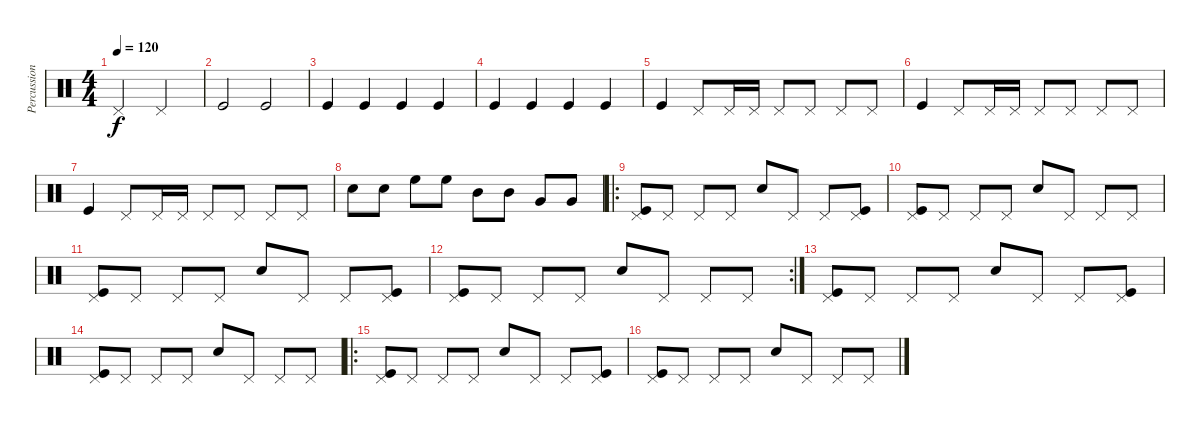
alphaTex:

\track ("Percussion" "Percussion") {instrument percussion}
\staff {score}
\articulation defaults
\ts (4 4)
\tempo 120
\clef neutral
\ks c "Pedal Hi-Hat (hit)".2{dy f} "Pedal Hi-Hat (hit)".2
|
"Kick (hit)".2 "Kick (hit)".2 |
"Kick (hit)".4 "Kick (hit)".4 "Kick (hit)".4 "Kick (hit)".4 |
"Kick (hit)".4 "Kick (hit)".4 "Kick (hit)".4 "Kick (hit)".4 |
"Kick (hit)".4 "Pedal Hi-Hat (hit)".8 "Pedal Hi-Hat (hit)".16 "Pedal Hi-Hat (hit)".16 "Pedal Hi-Hat (hit)".8 "Pedal Hi-Hat (hit)".8 "Pedal Hi-Hat (hit)".8 "Pedal Hi-Hat (hit)".8 |
"Kick (hit)".4 "Pedal Hi-Hat (hit)".8 "Pedal Hi-Hat (hit)".16 "Pedal Hi-Hat (hit)".16 "Pedal Hi-Hat (hit)".8 "Pedal Hi-Hat (hit)".8 "Pedal Hi-Hat (hit)".8 "Pedal Hi-Hat (hit)".8 |
"Kick (hit)".4 "Pedal Hi-Hat (hit)".8 "Pedal Hi-Hat (hit)".16 "Pedal Hi-Hat (hit)".16 "Pedal Hi-Hat (hit)".8 "Pedal Hi-Hat (hit)".8 "Pedal Hi-Hat (hit)".8 "Pedal Hi-Hat (hit)".8 |
"Snare (hit) 2".8 "Snare (hit) 2".8 "High Floor Tom (hit)".8 "High Floor Tom (hit)".8 "Mid Tom (hit)".8 "Mid Tom (hit)".8 "Very Low Tom (hit)".8 "Very Low Tom (hit)".8 |
\ro
("Pedal Hi-Hat (hit)" "Kick (hit)").8 "Pedal Hi-Hat (hit)".8 "Pedal Hi-Hat (hit)".8 "Pedal Hi-Hat (hit)".8 "Snare (hit) 2".8 "Pedal Hi-Hat (hit)".8 "Pedal Hi-Hat (hit)".8 ("Pedal Hi-Hat (hit)" "Kick (hit)").8 |
("Pedal Hi-Hat (hit)" "Kick (hit)").8 "Pedal Hi-Hat (hit)".8 "Pedal Hi-Hat (hit)".8 "Pedal Hi-Hat (hit)".8 "Snare (hit) 2".8 "Pedal Hi-Hat (hit)".8 "Pedal Hi-Hat (hit)".8 "Pedal Hi-Hat (hit)".8 |
("Pedal Hi-Hat (hit)" "Kick (hit)").8 "Pedal Hi-Hat (hit)".8 "Pedal Hi-Hat (hit)".8 "Pedal Hi-Hat (hit)".8 "Snare (hit) 2".8 "Pedal Hi-Hat (hit)".8 "Pedal Hi-Hat (hit)".8 ("Pedal Hi-Hat (hit)" "Kick (hit)").8 |
\rc 2
("Pedal Hi-Hat (hit)" "Kick (hit)").8 "Pedal Hi-Hat (hit)".8 "Pedal Hi-Hat (hit)".8 "Pedal Hi-Hat (hit)".8 "Snare (hit) 2".8 "Pedal Hi-Hat (hit)".8 "Pedal Hi-Hat (hit)".8 "Pedal Hi-Hat (hit)".8 |
("Pedal Hi-Hat (hit)" "Kick (hit)").8 "Pedal Hi-Hat (hit)".8 "Pedal Hi-Hat (hit)".8 "Pedal Hi-Hat (hit)".8 "Snare (hit) 2".8 "Pedal Hi-Hat (hit)".8 "Pedal Hi-Hat (hit)".8 ("Pedal Hi-Hat (hit)" "Kick (hit)").8 |
("Pedal Hi-Hat (hit)" "Kick (hit)").8 "Pedal Hi-Hat (hit)".8 "Pedal Hi-Hat (hit)".8 "Pedal Hi-Hat (hit)".8 "Snare (hit) 2".8 "Pedal Hi-Hat (hit)".8 "Pedal Hi-Hat (hit)".8 "Pedal Hi-Hat (hit)".8 |
\ro
("Pedal Hi-Hat (hit)" "Kick (hit)").8 "Pedal Hi-Hat (hit)".8 "Pedal Hi-Hat (hit)".8 "Pedal Hi-Hat (hit)".8 "Snare (hit) 2".8 "Pedal Hi-Hat (hit)".8 "Pedal Hi-Hat (hit)".8 ("Pedal Hi-Hat (hit)" "Kick (hit)").8 |
("Pedal Hi-Hat (hit)" "Kick (hit)").8 "Pedal Hi-Hat (hit)".8 "Pedal Hi-Hat (hit)".8 "Pedal Hi-Hat (hit)".8 "Snare (hit) 2".8 "Pedal Hi-Hat (hit)".8 "Pedal Hi-Hat (hit)".8 "Pedal Hi-Hat (hit)".8
